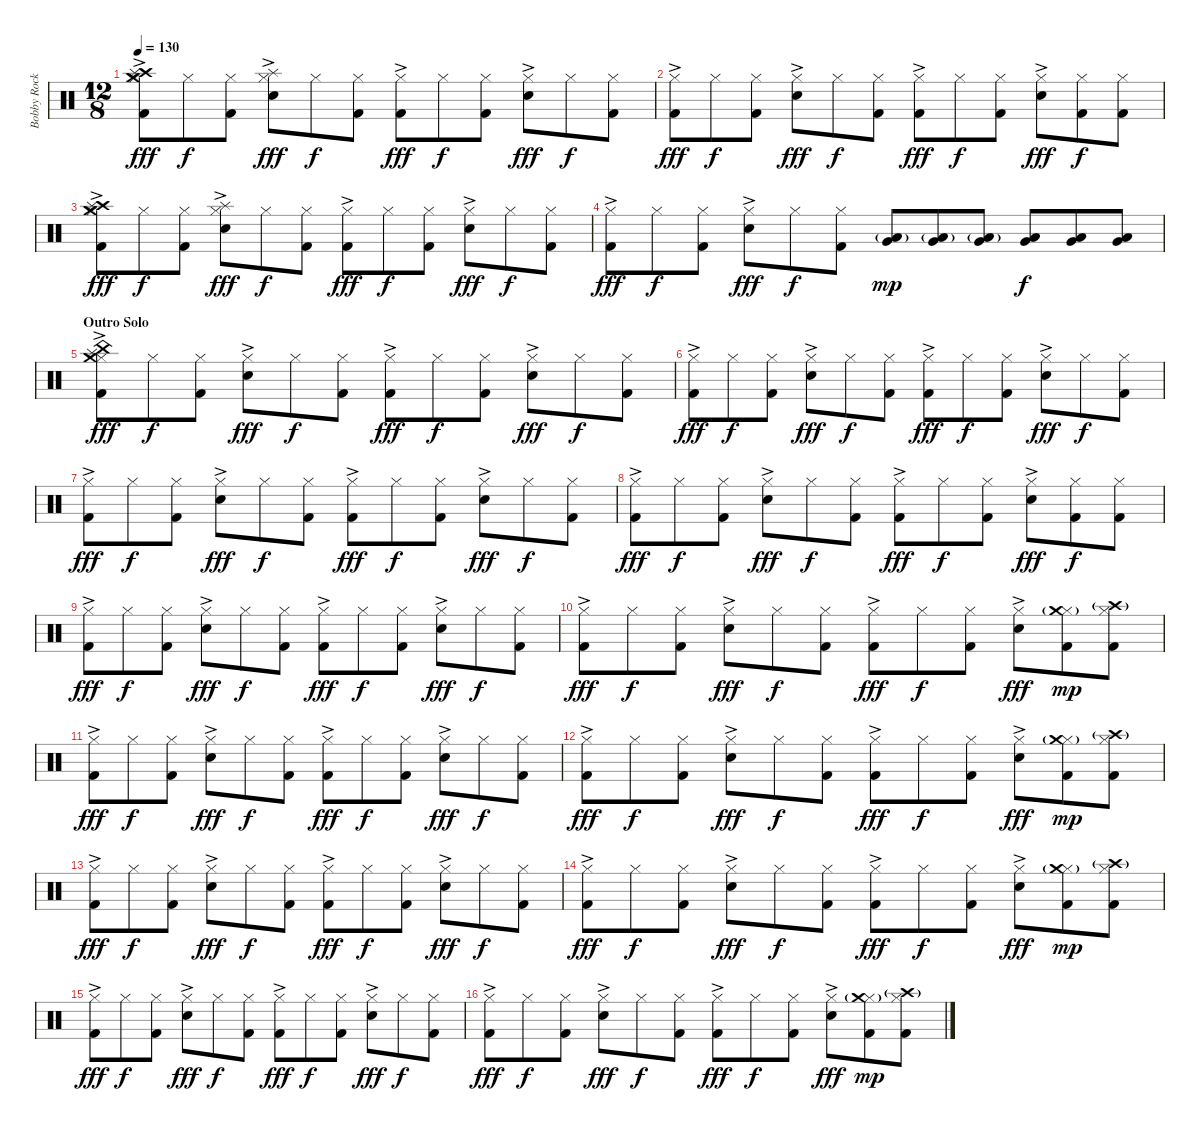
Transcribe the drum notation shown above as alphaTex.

\track ("Bobby Rock - drums" "Bobby Rock") {instrument percussion}
\staff {score}
\articulation defaults
\ts (12 8)
\tempo 130
\clef neutral
\ks c
("Hi-Hat (closed)"{ac} "Crash high (hit)" "Crash medium (hit)" "Splash (hit)" "Kick (hit) 2").8{dy fff} "Hi-Hat (closed)".8{dy f} ("Hi-Hat (closed)" "Kick (hit) 2").8 ("Hi-Hat (closed)"{ac} "Splash (hit)" "Snare (hit) 2").8{dy fff} "Hi-Hat (closed)".8{dy f} ("Hi-Hat (closed)" "Kick (hit) 2").8 ("Hi-Hat (closed)"{ac} "Kick (hit) 2").8{dy fff} "Hi-Hat (closed)".8{dy f} ("Hi-Hat (closed)" "Kick (hit) 2").8 ("Hi-Hat (closed)"{ac} "Snare (hit) 2").8{dy fff} "Hi-Hat (closed)".8{dy f} ("Hi-Hat (closed)" "Kick (hit) 2").8 |
("Hi-Hat (closed)"{ac} "Kick (hit) 2").8{dy fff} "Hi-Hat (closed)".8{dy f} ("Hi-Hat (closed)" "Kick (hit) 2").8 ("Hi-Hat (closed)"{ac} "Snare (hit) 2").8{dy fff} "Hi-Hat (closed)".8{dy f} ("Hi-Hat (closed)" "Kick (hit) 2").8 ("Hi-Hat (closed)"{ac} "Kick (hit) 2").8{dy fff} "Hi-Hat (closed)".8{dy f} ("Hi-Hat (closed)" "Kick (hit) 2").8 ("Hi-Hat (closed)"{ac} "Snare (hit) 2").8{dy fff} ("Hi-Hat (closed)" "Kick (hit) 2").8{dy f} ("Hi-Hat (closed)" "Kick (hit) 2").8 |
("Hi-Hat (closed)"{ac} "Crash high (hit)" "Crash medium (hit)" "Splash (hit)" "Kick (hit) 2").8{dy fff} "Hi-Hat (closed)".8{dy f} ("Hi-Hat (closed)" "Kick (hit) 2").8 ("Hi-Hat (closed)"{ac} "Splash (hit)" "Snare (hit) 2").8{dy fff} "Hi-Hat (closed)".8{dy f} ("Hi-Hat (closed)" "Kick (hit) 2").8 ("Hi-Hat (closed)"{ac} "Kick (hit) 2").8{dy fff} "Hi-Hat (closed)".8{dy f} ("Hi-Hat (closed)" "Kick (hit) 2").8 ("Hi-Hat (closed)"{ac} "Snare (hit) 2").8{dy fff} "Hi-Hat (closed)".8{dy f} ("Hi-Hat (closed)" "Kick (hit) 2").8 |
("Hi-Hat (closed)"{ac} "Kick (hit) 2").8{dy fff} "Hi-Hat (closed)".8{dy f} ("Hi-Hat (closed)" "Kick (hit) 2").8 ("Hi-Hat (closed)"{ac} "Snare (hit) 2").8{dy fff} "Hi-Hat (closed)".8{dy f} ("Hi-Hat (closed)" "Kick (hit) 2").8 ("Very Low Tom (hit)" "Low Floor Tom (hit)"{g}).8{dy mp} ("Very Low Tom (hit)" "Low Floor Tom (hit)"{g}).8 ("Very Low Tom (hit)" "Low Floor Tom (hit)"{g}).8 ("Very Low Tom (hit)" "Low Floor Tom (hit)").8{dy f} ("Very Low Tom (hit)" "Low Floor Tom (hit)").8 ("Very Low Tom (hit)" "Low Floor Tom (hit)").8 |
\section ("" "Outro Solo")
("Hi-Hat (closed)"{ac} "China (hit)" "Splash (hit)" "Crash medium (hit)" "Kick (hit) 2").8{dy fff} "Hi-Hat (closed)".8{dy f} ("Hi-Hat (closed)" "Kick (hit) 2").8 ("Hi-Hat (closed)"{ac} "Snare (hit) 2").8{dy fff} "Hi-Hat (closed)".8{dy f} ("Hi-Hat (closed)" "Kick (hit) 2").8 ("Hi-Hat (closed)"{ac} "Kick (hit) 2").8{dy fff} "Hi-Hat (closed)".8{dy f} ("Hi-Hat (closed)" "Kick (hit) 2").8 ("Hi-Hat (closed)"{ac} "Snare (hit) 2").8{dy fff} "Hi-Hat (closed)".8{dy f} ("Hi-Hat (closed)" "Kick (hit) 2").8 |
("Hi-Hat (closed)"{ac} "Kick (hit) 2").8{dy fff} "Hi-Hat (closed)".8{dy f} ("Hi-Hat (closed)" "Kick (hit) 2").8 ("Hi-Hat (closed)"{ac} "Snare (hit) 2").8{dy fff} "Hi-Hat (closed)".8{dy f} ("Hi-Hat (closed)" "Kick (hit) 2").8 ("Hi-Hat (closed)"{ac} "Kick (hit) 2").8{dy fff} "Hi-Hat (closed)".8{dy f} ("Hi-Hat (closed)" "Kick (hit) 2").8 ("Hi-Hat (closed)"{ac} "Snare (hit) 2").8{dy fff} "Hi-Hat (closed)".8{dy f} ("Hi-Hat (closed)" "Kick (hit) 2").8 |
("Hi-Hat (closed)"{ac} "Kick (hit) 2").8{dy fff} "Hi-Hat (closed)".8{dy f} ("Hi-Hat (closed)" "Kick (hit) 2").8 ("Hi-Hat (closed)"{ac} "Snare (hit) 2").8{dy fff} "Hi-Hat (closed)".8{dy f} ("Hi-Hat (closed)" "Kick (hit) 2").8 ("Hi-Hat (closed)"{ac} "Kick (hit) 2").8{dy fff} "Hi-Hat (closed)".8{dy f} ("Hi-Hat (closed)" "Kick (hit) 2").8 ("Hi-Hat (closed)"{ac} "Snare (hit) 2").8{dy fff} "Hi-Hat (closed)".8{dy f} ("Hi-Hat (closed)" "Kick (hit) 2").8 |
("Hi-Hat (closed)"{ac} "Kick (hit) 2").8{dy fff} "Hi-Hat (closed)".8{dy f} ("Hi-Hat (closed)" "Kick (hit) 2").8 ("Hi-Hat (closed)"{ac} "Snare (hit) 2").8{dy fff} "Hi-Hat (closed)".8{dy f} ("Hi-Hat (closed)" "Kick (hit) 2").8 ("Hi-Hat (closed)"{ac} "Kick (hit) 2").8{dy fff} "Hi-Hat (closed)".8{dy f} ("Hi-Hat (closed)" "Kick (hit) 2").8 ("Hi-Hat (closed)"{ac} "Snare (hit) 2").8{dy fff} ("Hi-Hat (closed)" "Kick (hit) 2").8{dy f} ("Hi-Hat (closed)" "Kick (hit) 2").8 |
("Hi-Hat (closed)"{ac} "Kick (hit) 2").8{dy fff} "Hi-Hat (closed)".8{dy f} ("Hi-Hat (closed)" "Kick (hit) 2").8 ("Hi-Hat (closed)"{ac} "Snare (hit) 2").8{dy fff} "Hi-Hat (closed)".8{dy f} ("Hi-Hat (closed)" "Kick (hit) 2").8 ("Hi-Hat (closed)"{ac} "Kick (hit) 2").8{dy fff} "Hi-Hat (closed)".8{dy f} ("Hi-Hat (closed)" "Kick (hit) 2").8 ("Hi-Hat (closed)"{ac} "Snare (hit) 2").8{dy fff} "Hi-Hat (closed)".8{dy f} ("Hi-Hat (closed)" "Kick (hit) 2").8 |
("Hi-Hat (closed)"{ac} "Kick (hit) 2").8{dy fff} "Hi-Hat (closed)".8{dy f} ("Hi-Hat (closed)" "Kick (hit) 2").8 ("Hi-Hat (closed)"{ac} "Snare (hit) 2").8{dy fff} "Hi-Hat (closed)".8{dy f} ("Hi-Hat (closed)" "Kick (hit) 2").8 ("Hi-Hat (closed)"{ac} "Kick (hit) 2").8{dy fff} "Hi-Hat (closed)".8{dy f} ("Hi-Hat (closed)" "Kick (hit) 2").8 ("Hi-Hat (closed)"{ac} "Snare (hit) 2").8{dy fff} ("Hi-Hat (closed)" "Crash medium (hit)"{g} "Kick (hit) 2").8{dy mp} ("Hi-Hat (closed)" "Crash high (hit)"{g} "Kick (hit) 2").8 |
("Hi-Hat (closed)"{ac} "Kick (hit) 2").8{dy fff} "Hi-Hat (closed)".8{dy f} ("Hi-Hat (closed)" "Kick (hit) 2").8 ("Hi-Hat (closed)"{ac} "Snare (hit) 2").8{dy fff} "Hi-Hat (closed)".8{dy f} ("Hi-Hat (closed)" "Kick (hit) 2").8 ("Hi-Hat (closed)"{ac} "Kick (hit) 2").8{dy fff} "Hi-Hat (closed)".8{dy f} ("Hi-Hat (closed)" "Kick (hit) 2").8 ("Hi-Hat (closed)"{ac} "Snare (hit) 2").8{dy fff} "Hi-Hat (closed)".8{dy f} ("Hi-Hat (closed)" "Kick (hit) 2").8 |
("Hi-Hat (closed)"{ac} "Kick (hit) 2").8{dy fff} "Hi-Hat (closed)".8{dy f} ("Hi-Hat (closed)" "Kick (hit) 2").8 ("Hi-Hat (closed)"{ac} "Snare (hit) 2").8{dy fff} "Hi-Hat (closed)".8{dy f} ("Hi-Hat (closed)" "Kick (hit) 2").8 ("Hi-Hat (closed)"{ac} "Kick (hit) 2").8{dy fff} "Hi-Hat (closed)".8{dy f} ("Hi-Hat (closed)" "Kick (hit) 2").8 ("Hi-Hat (closed)"{ac} "Snare (hit) 2").8{dy fff} ("Hi-Hat (closed)" "Crash medium (hit)"{g} "Kick (hit) 2").8{dy mp} ("Hi-Hat (closed)" "Crash high (hit)"{g} "Kick (hit) 2").8 |
("Hi-Hat (closed)"{ac} "Kick (hit) 2").8{dy fff} "Hi-Hat (closed)".8{dy f} ("Hi-Hat (closed)" "Kick (hit) 2").8 ("Hi-Hat (closed)"{ac} "Snare (hit) 2").8{dy fff} "Hi-Hat (closed)".8{dy f} ("Hi-Hat (closed)" "Kick (hit) 2").8 ("Hi-Hat (closed)"{ac} "Kick (hit) 2").8{dy fff} "Hi-Hat (closed)".8{dy f} ("Hi-Hat (closed)" "Kick (hit) 2").8 ("Hi-Hat (closed)"{ac} "Snare (hit) 2").8{dy fff} "Hi-Hat (closed)".8{dy f} ("Hi-Hat (closed)" "Kick (hit) 2").8 |
("Hi-Hat (closed)"{ac} "Kick (hit) 2").8{dy fff} "Hi-Hat (closed)".8{dy f} ("Hi-Hat (closed)" "Kick (hit) 2").8 ("Hi-Hat (closed)"{ac} "Snare (hit) 2").8{dy fff} "Hi-Hat (closed)".8{dy f} ("Hi-Hat (closed)" "Kick (hit) 2").8 ("Hi-Hat (closed)"{ac} "Kick (hit) 2").8{dy fff} "Hi-Hat (closed)".8{dy f} ("Hi-Hat (closed)" "Kick (hit) 2").8 ("Hi-Hat (closed)"{ac} "Snare (hit) 2").8{dy fff} ("Hi-Hat (closed)" "Crash medium (hit)"{g} "Kick (hit) 2").8{dy mp} ("Hi-Hat (closed)" "Crash high (hit)"{g} "Kick (hit) 2").8 |
("Hi-Hat (closed)"{ac} "Kick (hit) 2").8{dy fff} "Hi-Hat (closed)".8{dy f} ("Hi-Hat (closed)" "Kick (hit) 2").8 ("Hi-Hat (closed)"{ac} "Snare (hit) 2").8{dy fff} "Hi-Hat (closed)".8{dy f} ("Hi-Hat (closed)" "Kick (hit) 2").8 ("Hi-Hat (closed)"{ac} "Kick (hit) 2").8{dy fff} "Hi-Hat (closed)".8{dy f} ("Hi-Hat (closed)" "Kick (hit) 2").8 ("Hi-Hat (closed)"{ac} "Snare (hit) 2").8{dy fff} "Hi-Hat (closed)".8{dy f} ("Hi-Hat (closed)" "Kick (hit) 2").8 |
("Hi-Hat (closed)"{ac} "Kick (hit) 2").8{dy fff} "Hi-Hat (closed)".8{dy f} ("Hi-Hat (closed)" "Kick (hit) 2").8 ("Hi-Hat (closed)"{ac} "Snare (hit) 2").8{dy fff} "Hi-Hat (closed)".8{dy f} ("Hi-Hat (closed)" "Kick (hit) 2").8 ("Hi-Hat (closed)"{ac} "Kick (hit) 2").8{dy fff} "Hi-Hat (closed)".8{dy f} ("Hi-Hat (closed)" "Kick (hit) 2").8 ("Hi-Hat (closed)"{ac} "Snare (hit) 2").8{dy fff} ("Hi-Hat (closed)" "Crash medium (hit)"{g} "Kick (hit) 2").8{dy mp} ("Hi-Hat (closed)" "Crash high (hit)"{g} "Kick (hit) 2").8
